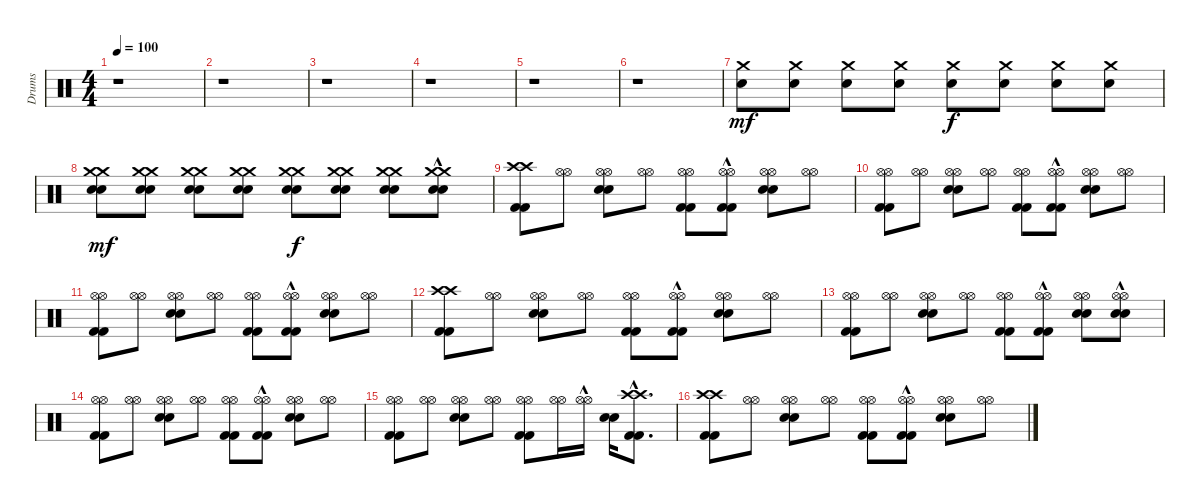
\track ("Drums" "Drums") {instrument percussion}
\staff {score}
\articulation defaults
\ts (4 4)
\tempo 100
\clef neutral
\ks c
r.1{dy mf} |
r.1 |
r.1 |
r.1 |
r.1 |
r.1 |
("Snare (hit) 2" "Crash medium (hit)").8{volume 12} ("Snare (hit) 2" "Crash medium (hit)").8 ("Snare (hit) 2" "Crash medium (hit)").8 ("Snare (hit) 2" "Crash medium (hit)").8 ("Snare (hit) 2" "Crash medium (hit)").8{dy f} ("Snare (hit) 2" "Crash medium (hit)").8 ("Snare (hit) 2" "Crash medium (hit)").8 ("Snare (hit) 2" "Crash medium (hit)").8 |
("Snare (hit) 2" "Snare (hit) 2" "Crash medium (hit)" "Crash medium (hit)").8{dy mf} ("Snare (hit) 2" "Snare (hit) 2" "Crash medium (hit)" "Crash medium (hit)").8 ("Snare (hit) 2" "Snare (hit) 2" "Crash medium (hit)" "Crash medium (hit)").8 ("Snare (hit) 2" "Snare (hit) 2" "Crash medium (hit)" "Crash medium (hit)").8 ("Snare (hit) 2" "Snare (hit) 2" "Crash medium (hit)" "Crash medium (hit)").8{dy f} ("Snare (hit) 2" "Snare (hit) 2" "Crash medium (hit)" "Crash medium (hit)").8 ("Snare (hit) 2" "Snare (hit) 2" "Crash medium (hit)" "Crash medium (hit)").8 ("Snare (hit) 2"{hac} "Snare (hit) 2"{hac} "Crash medium (hit)" "Crash medium (hit)").8 |
("Kick (hit) 2" "Kick (hit) 2" "Crash high (hit)" "Crash high (hit)").8 ("Hi-Hat (open)" "Hi-Hat (open)").8 ("Snare (hit) 2" "Snare (hit) 2" "Hi-Hat (open)" "Hi-Hat (open)").8 ("Hi-Hat (open)" "Hi-Hat (open)").8 ("Kick (hit) 2" "Kick (hit) 2" "Hi-Hat (open)" "Hi-Hat (open)").8 ("Kick (hit) 2"{hac} "Kick (hit) 2"{hac} "Hi-Hat (open)" "Hi-Hat (open)").8 ("Snare (hit) 2" "Snare (hit) 2" "Hi-Hat (open)" "Hi-Hat (open)").8 ("Hi-Hat (open)" "Hi-Hat (open)").8 |
("Kick (hit) 2" "Kick (hit) 2" "Hi-Hat (open)" "Hi-Hat (open)").8 ("Hi-Hat (open)" "Hi-Hat (open)").8 ("Snare (hit) 2" "Snare (hit) 2" "Hi-Hat (open)" "Hi-Hat (open)").8 ("Hi-Hat (open)" "Hi-Hat (open)").8 ("Kick (hit) 2" "Kick (hit) 2" "Hi-Hat (open)" "Hi-Hat (open)").8 ("Kick (hit) 2"{hac} "Kick (hit) 2"{hac} "Hi-Hat (open)" "Hi-Hat (open)").8 ("Snare (hit) 2" "Snare (hit) 2" "Hi-Hat (open)" "Hi-Hat (open)").8 ("Hi-Hat (open)" "Hi-Hat (open)").8 |
("Kick (hit) 2" "Kick (hit) 2" "Hi-Hat (open)" "Hi-Hat (open)").8 ("Hi-Hat (open)" "Hi-Hat (open)").8 ("Snare (hit) 2" "Snare (hit) 2" "Hi-Hat (open)" "Hi-Hat (open)").8 ("Hi-Hat (open)" "Hi-Hat (open)").8 ("Kick (hit) 2" "Kick (hit) 2" "Hi-Hat (open)" "Hi-Hat (open)").8 ("Kick (hit) 2"{hac} "Kick (hit) 2"{hac} "Hi-Hat (open)" "Hi-Hat (open)").8 ("Snare (hit) 2" "Snare (hit) 2" "Hi-Hat (open)" "Hi-Hat (open)").8 ("Hi-Hat (open)" "Hi-Hat (open)").8 |
("Kick (hit) 2" "Kick (hit) 2" "Crash high (hit)" "Crash high (hit)").8 ("Hi-Hat (open)" "Hi-Hat (open)").8 ("Snare (hit) 2" "Snare (hit) 2" "Hi-Hat (open)" "Hi-Hat (open)").8 ("Hi-Hat (open)" "Hi-Hat (open)").8 ("Kick (hit) 2" "Kick (hit) 2" "Hi-Hat (open)" "Hi-Hat (open)").8 ("Kick (hit) 2"{hac} "Kick (hit) 2"{hac} "Hi-Hat (open)" "Hi-Hat (open)").8 ("Snare (hit) 2" "Snare (hit) 2" "Hi-Hat (open)" "Hi-Hat (open)").8 ("Hi-Hat (open)" "Hi-Hat (open)").8 |
("Kick (hit) 2" "Kick (hit) 2" "Hi-Hat (open)" "Hi-Hat (open)").8 ("Hi-Hat (open)" "Hi-Hat (open)").8 ("Snare (hit) 2" "Snare (hit) 2" "Hi-Hat (open)" "Hi-Hat (open)").8 ("Hi-Hat (open)" "Hi-Hat (open)").8 ("Kick (hit) 2" "Kick (hit) 2" "Hi-Hat (open)" "Hi-Hat (open)").8 ("Kick (hit) 2"{hac} "Kick (hit) 2"{hac} "Hi-Hat (open)" "Hi-Hat (open)").8 ("Snare (hit) 2" "Snare (hit) 2" "Hi-Hat (open)" "Hi-Hat (open)").8 ("Snare (hit) 2"{hac} "Snare (hit) 2"{hac} "Hi-Hat (open)" "Hi-Hat (open)").8 |
("Kick (hit) 2" "Kick (hit) 2" "Hi-Hat (open)" "Hi-Hat (open)").8 ("Hi-Hat (open)" "Hi-Hat (open)").8 ("Snare (hit) 2" "Snare (hit) 2" "Hi-Hat (open)" "Hi-Hat (open)").8 ("Hi-Hat (open)" "Hi-Hat (open)").8 ("Kick (hit) 2" "Kick (hit) 2" "Hi-Hat (open)" "Hi-Hat (open)").8 ("Kick (hit) 2"{hac} "Kick (hit) 2"{hac} "Hi-Hat (open)" "Hi-Hat (open)").8 ("Snare (hit) 2" "Snare (hit) 2" "Hi-Hat (open)" "Hi-Hat (open)").8 ("Hi-Hat (open)" "Hi-Hat (open)").8 |
("Kick (hit) 2" "Kick (hit) 2" "Hi-Hat (open)" "Hi-Hat (open)").8 ("Hi-Hat (open)" "Hi-Hat (open)").8 ("Snare (hit) 2" "Snare (hit) 2" "Hi-Hat (open)" "Hi-Hat (open)").8 ("Hi-Hat (open)" "Hi-Hat (open)").8 ("Kick (hit) 2" "Kick (hit) 2" "Hi-Hat (open)" "Hi-Hat (open)").8 ("Hi-Hat (open)" "Hi-Hat (open)").16 ("Hi-Hat (open)"{hac} "Hi-Hat (open)"{hac}).16 ("Snare (hit) 2" "Snare (hit) 2").16 ("Kick (hit) 2"{hac} "Kick (hit) 2"{hac} "Crash high (hit)"{hac} "Crash high (hit)"{hac}).8{d} |
("Kick (hit) 2" "Kick (hit) 2" "Crash high (hit)" "Crash high (hit)").8 ("Hi-Hat (open)" "Hi-Hat (open)").8 ("Snare (hit) 2" "Snare (hit) 2" "Hi-Hat (open)" "Hi-Hat (open)").8 ("Hi-Hat (open)" "Hi-Hat (open)").8 ("Kick (hit) 2" "Kick (hit) 2" "Hi-Hat (open)" "Hi-Hat (open)").8 ("Kick (hit) 2"{hac} "Kick (hit) 2"{hac} "Hi-Hat (open)" "Hi-Hat (open)").8 ("Snare (hit) 2" "Snare (hit) 2" "Hi-Hat (open)" "Hi-Hat (open)").8 ("Hi-Hat (open)" "Hi-Hat (open)").8
